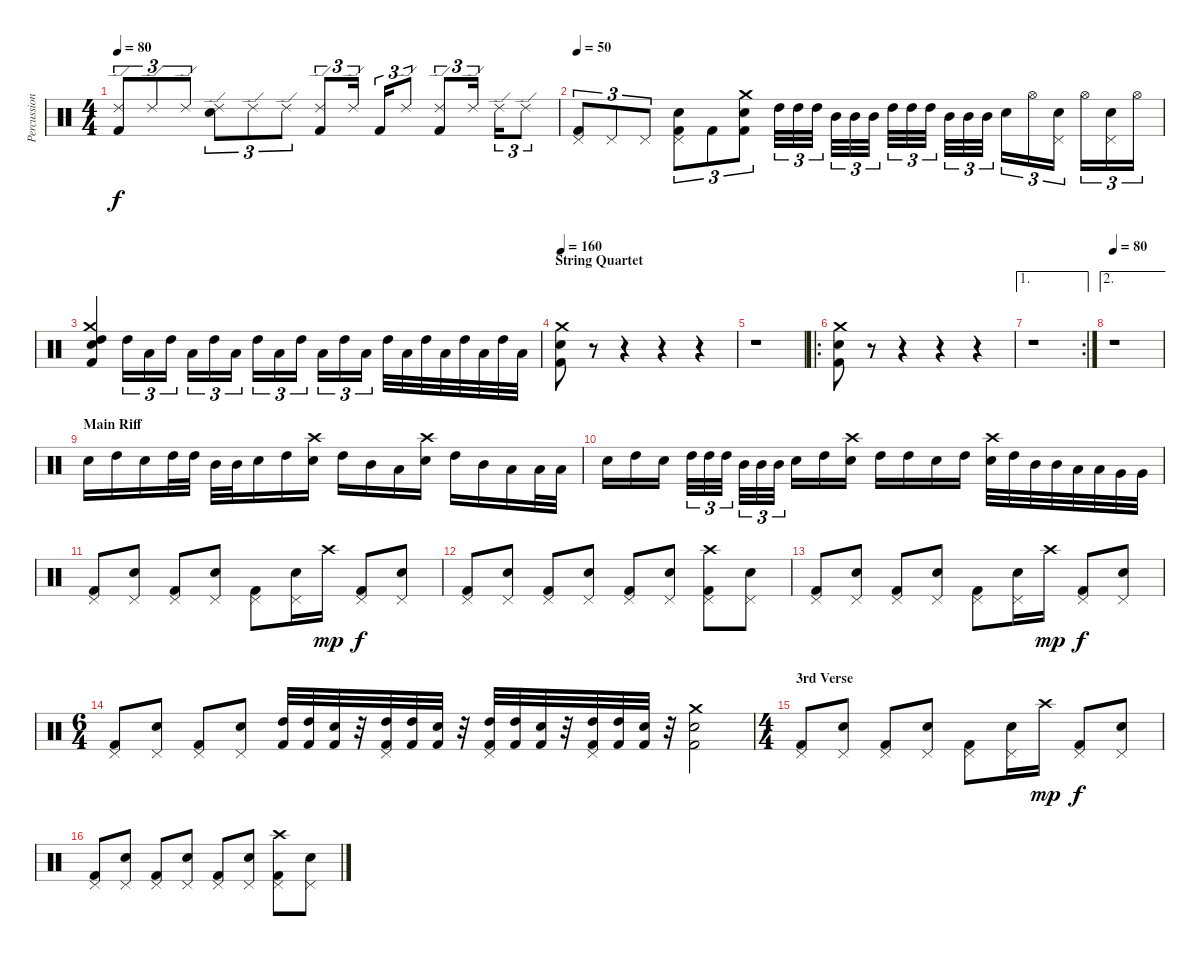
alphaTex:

\track ("Percussion" "Percussion") {instrument percussion}
\staff {score}
\articulation defaults
\ts (4 4)
\tempo 80
\clef neutral
\ks c
("Ride (edge) 2" "Kick (hit) 2").8{tu (3 2) dy f} "Ride (edge) 2".8{tu (3 2)} "Ride (edge) 2".8{tu (3 2)} ("Ride (edge) 2" "Electric Snare (hit)").8{tu (3 2)} "Ride (edge) 2".8{tu (3 2)} "Ride (edge) 2".8{tu (3 2)} ("Ride (edge) 2" "Kick (hit) 2").8{tu (3 2)} "Ride (edge) 2".16{tu (3 2)} "Kick (hit) 2".16{tu (3 2)} "Ride (edge) 2".8{tu (3 2)} ("Ride (edge) 2" "Kick (hit) 2").8{tu (3 2)} "Ride (edge) 2".16{tu (3 2)} "Ride (edge) 2".16{tu (3 2)} "Ride (edge) 2".8{tu (3 2)} |
\tempo 50
("Pedal Hi-Hat (hit)" "Kick (hit) 2").8{tu (3 2)} "Pedal Hi-Hat (hit)".8{tu (3 2)} "Pedal Hi-Hat (hit)".8{tu (3 2)} ("Pedal Hi-Hat (hit)" "Electric Snare (hit)" "Kick (hit) 2").8{tu (3 2)} "Kick (hit) 2".8{tu (3 2)} ("Crash medium (hit)" "Electric Snare (hit)" "Kick (hit) 2").8{tu (3 2)} "High Tom (hit)".32{tu (3 2)} "High Tom (hit)".32{tu (3 2)} "High Tom (hit)".32{tu (3 2)} "Mid Tom (hit)".32{tu (3 2)} "Mid Tom (hit)".32{tu (3 2)} "Mid Tom (hit)".32{tu (3 2)} "High Tom (hit)".32{tu (3 2)} "High Tom (hit)".32{tu (3 2)} "High Tom (hit)".32{tu (3 2)} "Mid Tom (hit)".32{tu (3 2)} "Mid Tom (hit)".32{tu (3 2)} "Mid Tom (hit)".32{tu (3 2)} "Electric Snare (hit)".16{tu (3 2)} "Hi-Hat (open)".16{tu (3 2)} ("Pedal Hi-Hat (hit)" "Electric Snare (hit)").16{tu (3 2)} "Hi-Hat (open)".16{tu (3 2)} ("Pedal Hi-Hat (hit)" "Electric Snare (hit)").16{tu (3 2)} "Hi-Hat (open)".16{tu (3 2)} |
("Crash medium (hit)" "Electric Snare (hit)" "High Tom (hit)" "Kick (hit) 2").4 "High Tom (hit)".16{tu (3 2)} "Low Tom (hit)".16{tu (3 2)} "High Tom (hit)".16{tu (3 2)} "Low Tom (hit)".16{tu (3 2)} "High Tom (hit)".16{tu (3 2)} "Low Tom (hit)".16{tu (3 2)} "High Tom (hit)".16{tu (3 2)} "Low Tom (hit)".16{tu (3 2)} "High Tom (hit)".16{tu (3 2)} "Low Tom (hit)".16{tu (3 2)} "High Tom (hit)".16{tu (3 2)} "Low Tom (hit)".16{tu (3 2)} "High Tom (hit)".32 "Low Tom (hit)".32 "High Tom (hit)".32 "Low Tom (hit)".32 "High Tom (hit)".32 "Low Tom (hit)".32 "High Tom (hit)".32 "Low Tom (hit)".32 |
\section ("" "String Quartet")
\tempo 160
("Crash medium (hit)" "Electric Snare (hit)" "Kick (hit) 2").8 r.8 r.4 r.4 r.4 |
r.1 |
\ro
("Crash medium (hit)" "Electric Snare (hit)" "Kick (hit) 2").8 r.8 r.4 r.4 r.4 |
\ae 1
\rc 2
r.1 |
\ae 2
\tempo 80
r.1 |
\section ("" "Main Riff")
"Electric Snare (hit)".16 "High Tom (hit)".16 "Electric Snare (hit)".16 "High Tom (hit)".32 "High Tom (hit)".32 "Mid Tom (hit)".32 "Mid Tom (hit)".32 "Electric Snare (hit)".16 "High Tom (hit)".16 ("Crash high (hit)" "Electric Snare (hit)").16 "High Tom (hit)".16 "Mid Tom (hit)".16 "Low Tom (hit)".16 ("Crash high (hit)" "Electric Snare (hit)").16 "High Tom (hit)".16 "Mid Tom (hit)".16 "Low Tom (hit)".16 "Low Tom (hit)".32 "Low Tom (hit)".32 |
"Electric Snare (hit)".16 "High Tom (hit)".16 "Electric Snare (hit)".16 "High Tom (hit)".32{tu (3 2)} "High Tom (hit)".32{tu (3 2)} "High Tom (hit)".32{tu (3 2)} "Mid Tom (hit)".32{tu (3 2)} "Mid Tom (hit)".32{tu (3 2)} "Mid Tom (hit)".32{tu (3 2)} "Electric Snare (hit)".16 "High Tom (hit)".16 ("Crash high (hit)" "Electric Snare (hit)").16 "High Tom (hit)".16 "High Tom (hit)".16 "Electric Snare (hit)".16 "High Tom (hit)".16 ("Crash high (hit)" "Electric Snare (hit)").32 "High Tom (hit)".32 "Mid Tom (hit)".32 "Mid Tom (hit)".32 "Low Tom (hit)".32 "Low Tom (hit)".32 "Very Low Tom (hit)".32 "Very Low Tom (hit)".32 |
("Pedal Hi-Hat (hit)" "Kick (hit) 2").8 ("Pedal Hi-Hat (hit)" "Electric Snare (hit)").8 ("Pedal Hi-Hat (hit)" "Kick (hit) 2").8 ("Pedal Hi-Hat (hit)" "Electric Snare (hit)").8 ("Pedal Hi-Hat (hit)" "Kick (hit) 2").8 ("Pedal Hi-Hat (hit)" "Electric Snare (hit)").16 "Crash high (hit)".16{dy mp} ("Pedal Hi-Hat (hit)" "Kick (hit) 2").8{dy f} ("Pedal Hi-Hat (hit)" "Electric Snare (hit)").8 |
("Pedal Hi-Hat (hit)" "Kick (hit) 2").8 ("Pedal Hi-Hat (hit)" "Electric Snare (hit)").8 ("Pedal Hi-Hat (hit)" "Kick (hit) 2").8 ("Pedal Hi-Hat (hit)" "Electric Snare (hit)").8 ("Pedal Hi-Hat (hit)" "Kick (hit) 2").8 ("Pedal Hi-Hat (hit)" "Electric Snare (hit)").8 ("Crash high (hit)" "Pedal Hi-Hat (hit)" "Kick (hit) 2").8 ("Pedal Hi-Hat (hit)" "Electric Snare (hit)").8 |
("Pedal Hi-Hat (hit)" "Kick (hit) 2").8 ("Pedal Hi-Hat (hit)" "Electric Snare (hit)").8 ("Pedal Hi-Hat (hit)" "Kick (hit) 2").8 ("Pedal Hi-Hat (hit)" "Electric Snare (hit)").8 ("Pedal Hi-Hat (hit)" "Kick (hit) 2").8 ("Pedal Hi-Hat (hit)" "Electric Snare (hit)").16 "Crash high (hit)".16{dy mp} ("Pedal Hi-Hat (hit)" "Kick (hit) 2").8{dy f} ("Pedal Hi-Hat (hit)" "Electric Snare (hit)").8 |
\ts (6 4)
("Pedal Hi-Hat (hit)" "Kick (hit) 2").8 ("Pedal Hi-Hat (hit)" "Electric Snare (hit)").8 ("Pedal Hi-Hat (hit)" "Kick (hit) 2").8 ("Pedal Hi-Hat (hit)" "Electric Snare (hit)").8 ("High Tom (hit)" "Kick (hit) 2").32 ("High Tom (hit)" "Kick (hit) 2").32 ("Electric Snare (hit)" "Kick (hit) 2").32 r.32 ("Pedal Hi-Hat (hit)" "High Tom (hit)" "Kick (hit) 2").32 ("High Tom (hit)" "Kick (hit) 2").32 ("Electric Snare (hit)" "Kick (hit) 2").32 r.32 ("Pedal Hi-Hat (hit)" "High Tom (hit)" "Kick (hit) 2").32 ("High Tom (hit)" "Kick (hit) 2").32 ("Electric Snare (hit)" "Kick (hit) 2").32 r.32 ("Pedal Hi-Hat (hit)" "High Tom (hit)" "Kick (hit) 2").32 ("High Tom (hit)" "Kick (hit) 2").32 ("Electric Snare (hit)" "Kick (hit) 2").32 r.32 ("Crash medium (hit)" "Electric Snare (hit)" "Kick (hit) 2").2 |
\ts (4 4)
\section ("" "3rd Verse")
("Pedal Hi-Hat (hit)" "Kick (hit) 2").8 ("Pedal Hi-Hat (hit)" "Electric Snare (hit)").8 ("Pedal Hi-Hat (hit)" "Kick (hit) 2").8 ("Pedal Hi-Hat (hit)" "Electric Snare (hit)").8 ("Pedal Hi-Hat (hit)" "Kick (hit) 2").8 ("Pedal Hi-Hat (hit)" "Electric Snare (hit)").16 "Crash high (hit)".16{dy mp} ("Pedal Hi-Hat (hit)" "Kick (hit) 2").8{dy f} ("Pedal Hi-Hat (hit)" "Electric Snare (hit)").8 |
("Pedal Hi-Hat (hit)" "Kick (hit) 2").8 ("Pedal Hi-Hat (hit)" "Electric Snare (hit)").8 ("Pedal Hi-Hat (hit)" "Kick (hit) 2").8 ("Pedal Hi-Hat (hit)" "Electric Snare (hit)").8 ("Pedal Hi-Hat (hit)" "Kick (hit) 2").8 ("Pedal Hi-Hat (hit)" "Electric Snare (hit)").8 ("Crash high (hit)" "Pedal Hi-Hat (hit)" "Kick (hit) 2").8 ("Pedal Hi-Hat (hit)" "Electric Snare (hit)").8
